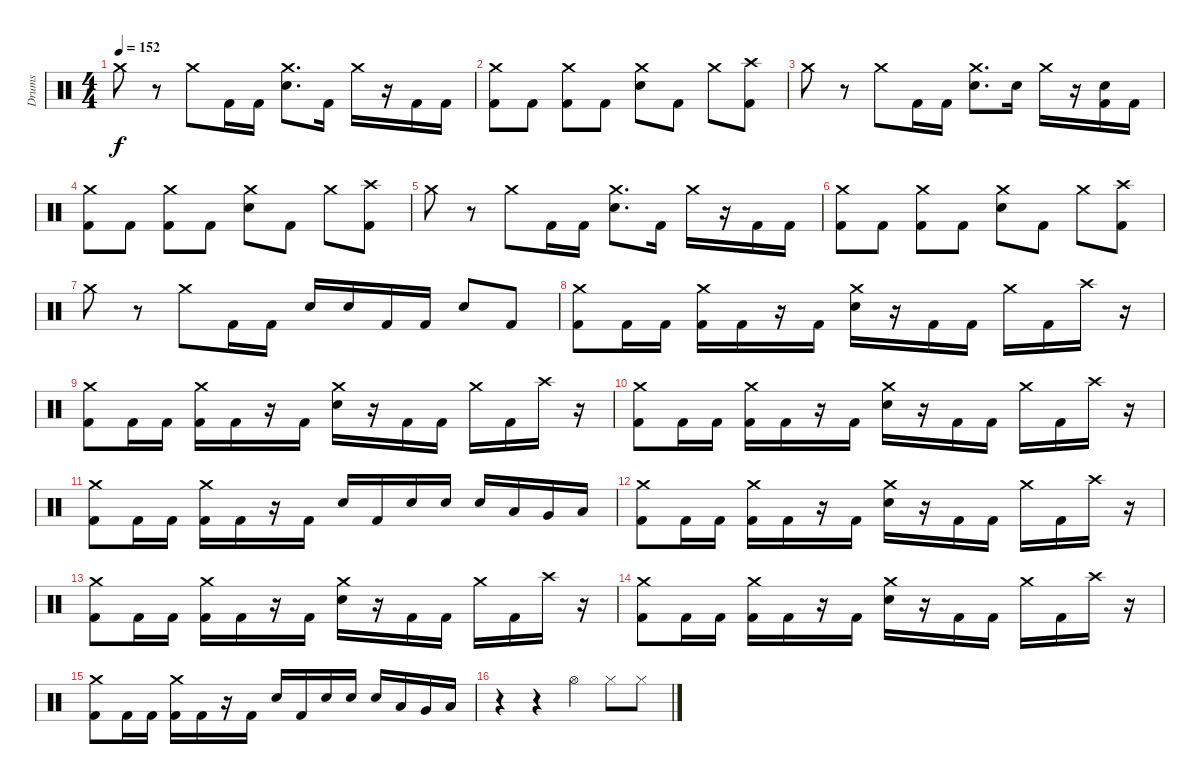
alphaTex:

\track ("Drums" "Drums") {instrument percussion}
\staff {score}
\articulation defaults
\ts (4 4)
\tempo 152
\clef neutral
\ks c "Crash medium (hit)".8{dy f}
r.8 "Crash medium (hit)".8 "Kick (hit) 2".16 "Kick (hit) 2".16 ("Crash medium (hit)" "Electric Snare (hit)").8{d} "Kick (hit) 2".16 "Crash medium (hit)".16 r.16 "Kick (hit) 2".16 "Kick (hit) 2".16 |
("Crash medium (hit)" "Kick (hit) 2").8 "Kick (hit) 2".8 ("Crash medium (hit)" "Kick (hit) 2").8 "Kick (hit) 2".8 ("Crash medium (hit)" "Electric Snare (hit)").8 "Kick (hit) 2".8 "Crash medium (hit)".8 ("Crash high (hit)" "Kick (hit) 2").8 |
"Crash medium (hit)".8 r.8 "Crash medium (hit)".8 "Kick (hit) 2".16 "Kick (hit) 2".16 ("Crash medium (hit)" "Electric Snare (hit)").8{d} "Electric Snare (hit)".16 "Crash medium (hit)".16 r.16 ("Electric Snare (hit)" "Kick (hit) 2").16 "Kick (hit) 2".16 |
("Crash medium (hit)" "Kick (hit) 2").8 "Kick (hit) 2".8 ("Crash medium (hit)" "Kick (hit) 2").8 "Kick (hit) 2".8 ("Crash medium (hit)" "Electric Snare (hit)").8 "Kick (hit) 2".8 "Crash medium (hit)".8 ("Crash high (hit)" "Kick (hit) 2").8 |
"Crash medium (hit)".8 r.8 "Crash medium (hit)".8 "Kick (hit) 2".16 "Kick (hit) 2".16 ("Crash medium (hit)" "Electric Snare (hit)").8{d} "Kick (hit) 2".16 "Crash medium (hit)".16 r.16 "Kick (hit) 2".16 "Kick (hit) 2".16 |
("Crash medium (hit)" "Kick (hit) 2").8 "Kick (hit) 2".8 ("Crash medium (hit)" "Kick (hit) 2").8 "Kick (hit) 2".8 ("Crash medium (hit)" "Electric Snare (hit)").8 "Kick (hit) 2".8 "Crash medium (hit)".8 ("Crash high (hit)" "Kick (hit) 2").8 |
"Crash medium (hit)".8 r.8 "Crash medium (hit)".8 "Kick (hit) 2".16 "Kick (hit) 2".16 "Electric Snare (hit)".16 "Electric Snare (hit)".16 "Kick (hit) 2".16 "Kick (hit) 2".16 "Electric Snare (hit)".8 "Kick (hit) 2".8 |
("Crash medium (hit)" "Kick (hit) 2").8 "Kick (hit) 2".16 "Kick (hit) 2".16 ("Crash medium (hit)" "Kick (hit) 2").16 "Kick (hit) 2".16 r.16 "Kick (hit) 2".16 ("Crash medium (hit)" "Electric Snare (hit)").16 r.16 "Kick (hit) 2".16 "Kick (hit) 2".16 "Crash medium (hit)".16 "Kick (hit) 2".16 "Crash high (hit)".16 r.16 |
("Crash medium (hit)" "Kick (hit) 2").8 "Kick (hit) 2".16 "Kick (hit) 2".16 ("Crash medium (hit)" "Kick (hit) 2").16 "Kick (hit) 2".16 r.16 "Kick (hit) 2".16 ("Crash medium (hit)" "Electric Snare (hit)").16 r.16 "Kick (hit) 2".16 "Kick (hit) 2".16 "Crash medium (hit)".16 "Kick (hit) 2".16 "Crash high (hit)".16 r.16 |
("Crash medium (hit)" "Kick (hit) 2").8 "Kick (hit) 2".16 "Kick (hit) 2".16 ("Crash medium (hit)" "Kick (hit) 2").16 "Kick (hit) 2".16 r.16 "Kick (hit) 2".16 ("Crash medium (hit)" "Electric Snare (hit)").16 r.16 "Kick (hit) 2".16 "Kick (hit) 2".16 "Crash medium (hit)".16 "Kick (hit) 2".16 "Crash high (hit)".16 r.16 |
("Crash medium (hit)" "Kick (hit) 2").8 "Kick (hit) 2".16 "Kick (hit) 2".16 ("Crash medium (hit)" "Kick (hit) 2").16 "Kick (hit) 2".16 r.16 "Kick (hit) 2".16 "Electric Snare (hit)".16 "Kick (hit) 2".16 "Electric Snare (hit)".16 "Electric Snare (hit)".16 "Electric Snare (hit)".16 "Low Tom (hit)".16 "Very Low Tom (hit)".16 "Low Floor Tom (hit)".16 |
("Crash medium (hit)" "Kick (hit) 2").8 "Kick (hit) 2".16 "Kick (hit) 2".16 ("Crash medium (hit)" "Kick (hit) 2").16 "Kick (hit) 2".16 r.16 "Kick (hit) 2".16 ("Crash medium (hit)" "Electric Snare (hit)").16 r.16 "Kick (hit) 2".16 "Kick (hit) 2".16 "Crash medium (hit)".16 "Kick (hit) 2".16 "Crash high (hit)".16 r.16 |
("Crash medium (hit)" "Kick (hit) 2").8 "Kick (hit) 2".16 "Kick (hit) 2".16 ("Crash medium (hit)" "Kick (hit) 2").16 "Kick (hit) 2".16 r.16 "Kick (hit) 2".16 ("Crash medium (hit)" "Electric Snare (hit)").16 r.16 "Kick (hit) 2".16 "Kick (hit) 2".16 "Crash medium (hit)".16 "Kick (hit) 2".16 "Crash high (hit)".16 r.16 |
("Crash medium (hit)" "Kick (hit) 2").8 "Kick (hit) 2".16 "Kick (hit) 2".16 ("Crash medium (hit)" "Kick (hit) 2").16 "Kick (hit) 2".16 r.16 "Kick (hit) 2".16 ("Crash medium (hit)" "Electric Snare (hit)").16 r.16 "Kick (hit) 2".16 "Kick (hit) 2".16 "Crash medium (hit)".16 "Kick (hit) 2".16 "Crash high (hit)".16 r.16 |
("Crash medium (hit)" "Kick (hit) 2").8 "Kick (hit) 2".16 "Kick (hit) 2".16 ("Crash medium (hit)" "Kick (hit) 2").16 "Kick (hit) 2".16 r.16 "Kick (hit) 2".16 "Electric Snare (hit)".16 "Kick (hit) 2".16 "Electric Snare (hit)".16 "Electric Snare (hit)".16 "Electric Snare (hit)".16 "Low Tom (hit)".16 "Very Low Tom (hit)".16 "Low Floor Tom (hit)".16 |
r.4 r.4 "Hi-Hat (open)".4 "Hi-Hat (closed)".8 "Hi-Hat (closed)".8
